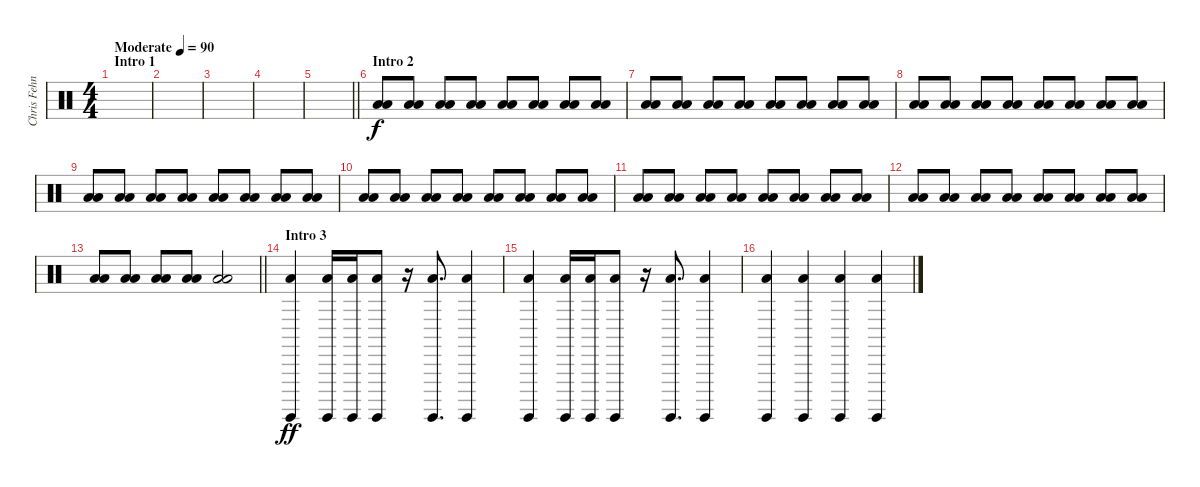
\track ("Chris Fehn" "Chris Fehn") {instrument percussion}
\staff {score}
\articulation defaults
\ts (4 4)
\section ("" "Intro 1")
\tempo (90 "Moderate")
\clef neutral
\ks c
|
|
|
|
\barLineRight lightlight
|
\section ("" "Intro 2")
("Low Floor Tom (hit)" "Low Floor Tom (hit)").8 ("Low Floor Tom (hit)" "Low Floor Tom (hit)").8 ("Low Floor Tom (hit)" "Low Floor Tom (hit)").8 ("Low Floor Tom (hit)" "Low Floor Tom (hit)").8 ("Low Floor Tom (hit)" "Low Floor Tom (hit)").8 ("Low Floor Tom (hit)" "Low Floor Tom (hit)").8 ("Low Floor Tom (hit)" "Low Floor Tom (hit)").8 ("Low Floor Tom (hit)" "Low Floor Tom (hit)").8 |
("Low Floor Tom (hit)" "Low Floor Tom (hit)").8 ("Low Floor Tom (hit)" "Low Floor Tom (hit)").8 ("Low Floor Tom (hit)" "Low Floor Tom (hit)").8 ("Low Floor Tom (hit)" "Low Floor Tom (hit)").8 ("Low Floor Tom (hit)" "Low Floor Tom (hit)").8 ("Low Floor Tom (hit)" "Low Floor Tom (hit)").8 ("Low Floor Tom (hit)" "Low Floor Tom (hit)").8 ("Low Floor Tom (hit)" "Low Floor Tom (hit)").8 |
("Low Floor Tom (hit)" "Low Floor Tom (hit)").8 ("Low Floor Tom (hit)" "Low Floor Tom (hit)").8 ("Low Floor Tom (hit)" "Low Floor Tom (hit)").8 ("Low Floor Tom (hit)" "Low Floor Tom (hit)").8 ("Low Floor Tom (hit)" "Low Floor Tom (hit)").8 ("Low Floor Tom (hit)" "Low Floor Tom (hit)").8 ("Low Floor Tom (hit)" "Low Floor Tom (hit)").8 ("Low Floor Tom (hit)" "Low Floor Tom (hit)").8 |
("Low Floor Tom (hit)" "Low Floor Tom (hit)").8 ("Low Floor Tom (hit)" "Low Floor Tom (hit)").8 ("Low Floor Tom (hit)" "Low Floor Tom (hit)").8 ("Low Floor Tom (hit)" "Low Floor Tom (hit)").8 ("Low Floor Tom (hit)" "Low Floor Tom (hit)").8 ("Low Floor Tom (hit)" "Low Floor Tom (hit)").8 ("Low Floor Tom (hit)" "Low Floor Tom (hit)").8 ("Low Floor Tom (hit)" "Low Floor Tom (hit)").8 |
("Low Floor Tom (hit)" "Low Floor Tom (hit)").8 ("Low Floor Tom (hit)" "Low Floor Tom (hit)").8 ("Low Floor Tom (hit)" "Low Floor Tom (hit)").8 ("Low Floor Tom (hit)" "Low Floor Tom (hit)").8 ("Low Floor Tom (hit)" "Low Floor Tom (hit)").8 ("Low Floor Tom (hit)" "Low Floor Tom (hit)").8 ("Low Floor Tom (hit)" "Low Floor Tom (hit)").8 ("Low Floor Tom (hit)" "Low Floor Tom (hit)").8 |
("Low Floor Tom (hit)" "Low Floor Tom (hit)").8 ("Low Floor Tom (hit)" "Low Floor Tom (hit)").8 ("Low Floor Tom (hit)" "Low Floor Tom (hit)").8 ("Low Floor Tom (hit)" "Low Floor Tom (hit)").8 ("Low Floor Tom (hit)" "Low Floor Tom (hit)").8 ("Low Floor Tom (hit)" "Low Floor Tom (hit)").8 ("Low Floor Tom (hit)" "Low Floor Tom (hit)").8 ("Low Floor Tom (hit)" "Low Floor Tom (hit)").8 |
("Low Floor Tom (hit)" "Low Floor Tom (hit)").8 ("Low Floor Tom (hit)" "Low Floor Tom (hit)").8 ("Low Floor Tom (hit)" "Low Floor Tom (hit)").8 ("Low Floor Tom (hit)" "Low Floor Tom (hit)").8 ("Low Floor Tom (hit)" "Low Floor Tom (hit)").8 ("Low Floor Tom (hit)" "Low Floor Tom (hit)").8 ("Low Floor Tom (hit)" "Low Floor Tom (hit)").8 ("Low Floor Tom (hit)" "Low Floor Tom (hit)").8 |
\barLineRight lightlight
("Low Floor Tom (hit)" "Low Floor Tom (hit)").8 ("Low Floor Tom (hit)" "Low Floor Tom (hit)").8 ("Low Floor Tom (hit)" "Low Floor Tom (hit)").8 ("Low Floor Tom (hit)" "Low Floor Tom (hit)").8 ("Low Floor Tom (hit)" "Low Floor Tom (hit)").2 |
\section ("" "Intro 3")
("Surdo (hit)" "Low Floor Tom (hit)").4{dy ff} ("Surdo (hit)" "Low Floor Tom (hit)").16 ("Surdo (hit)" "Low Floor Tom (hit)").16 ("Surdo (hit)" "Low Floor Tom (hit)").8 r.16 ("Surdo (hit)" "Low Floor Tom (hit)").8{d} ("Surdo (hit)" "Low Floor Tom (hit)").4 |
("Surdo (hit)" "Low Floor Tom (hit)").4 ("Surdo (hit)" "Low Floor Tom (hit)").16 ("Surdo (hit)" "Low Floor Tom (hit)").16 ("Surdo (hit)" "Low Floor Tom (hit)").8 r.16 ("Surdo (hit)" "Low Floor Tom (hit)").8{d} ("Surdo (hit)" "Low Floor Tom (hit)").4 |
("Surdo (hit)" "Low Floor Tom (hit)").4 ("Surdo (hit)" "Low Floor Tom (hit)").4 ("Surdo (hit)" "Low Floor Tom (hit)").4 ("Surdo (hit)" "Low Floor Tom (hit)").4
